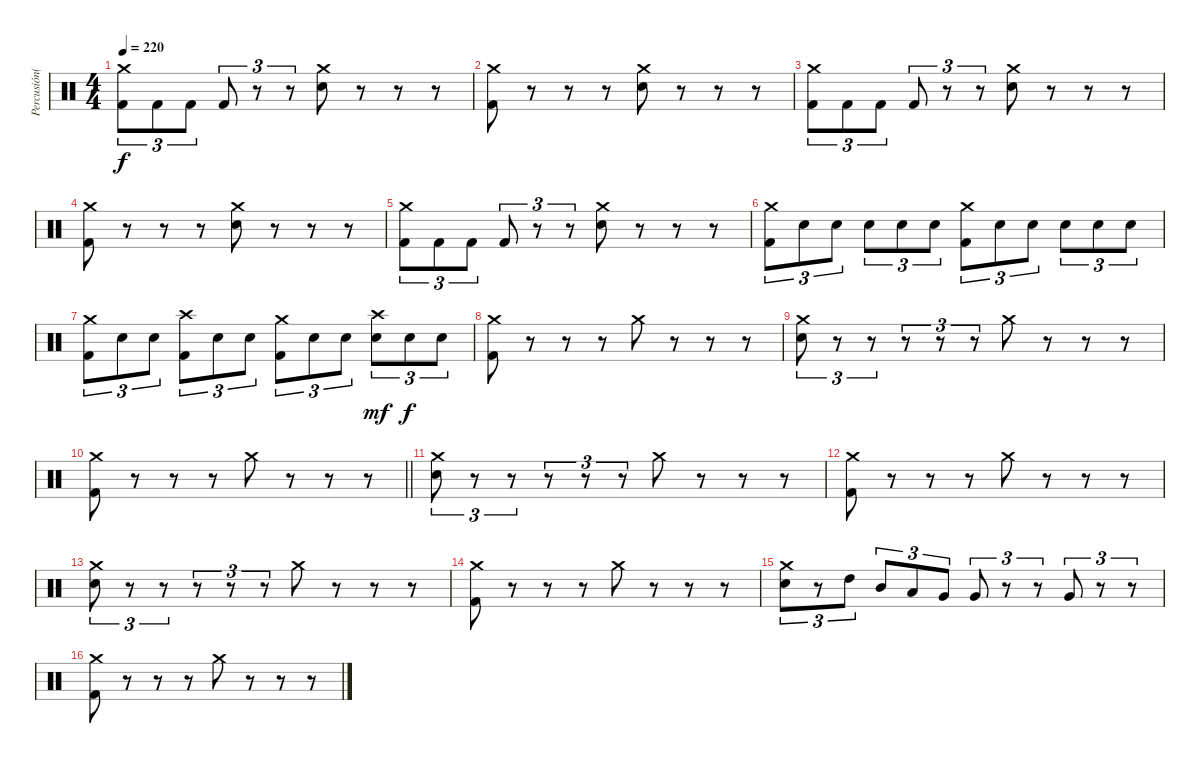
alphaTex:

\track ("Percusión(Brett Powell)" "Percusión(") {instrument percussion}
\staff {score}
\articulation defaults
\ts (4 4)
\tempo 220
\clef neutral
\ks c
("Crash medium (hit)" "Kick (hit) 2").8{tu (3 2) dy f} "Kick (hit) 2".8{tu (3 2)} "Kick (hit) 2".8{tu (3 2)} "Kick (hit) 2".8{tu (3 2)} r.8{tu (3 2)} r.8{tu (3 2)} ("Crash medium (hit)" "Electric Snare (hit)").8 r.8 r.8 r.8 |
("Crash medium (hit)" "Kick (hit) 2").8 r.8 r.8 r.8 ("Crash medium (hit)" "Electric Snare (hit)").8 r.8 r.8 r.8 |
("Crash medium (hit)" "Kick (hit) 2").8{tu (3 2)} "Kick (hit) 2".8{tu (3 2)} "Kick (hit) 2".8{tu (3 2)} "Kick (hit) 2".8{tu (3 2)} r.8{tu (3 2)} r.8{tu (3 2)} ("Crash medium (hit)" "Electric Snare (hit)").8 r.8 r.8 r.8 |
("Crash medium (hit)" "Kick (hit) 2").8 r.8 r.8 r.8 ("Crash medium (hit)" "Electric Snare (hit)").8 r.8 r.8 r.8 |
("Crash medium (hit)" "Kick (hit) 2").8{tu (3 2)} "Kick (hit) 2".8{tu (3 2)} "Kick (hit) 2".8{tu (3 2)} "Kick (hit) 2".8{tu (3 2)} r.8{tu (3 2)} r.8{tu (3 2)} ("Crash medium (hit)" "Electric Snare (hit)").8 r.8 r.8 r.8 |
("Crash medium (hit)" "Kick (hit) 2").8{tu (3 2)} "Electric Snare (hit)".8{tu (3 2)} "Electric Snare (hit)".8{tu (3 2)} "Electric Snare (hit)".8{tu (3 2)} "Electric Snare (hit)".8{tu (3 2)} "Electric Snare (hit)".8{tu (3 2)} ("Crash medium (hit)" "Kick (hit) 2").8{tu (3 2)} "Electric Snare (hit)".8{tu (3 2)} "Electric Snare (hit)".8{tu (3 2)} "Electric Snare (hit)".8{tu (3 2)} "Electric Snare (hit)".8{tu (3 2)} "Electric Snare (hit)".8{tu (3 2)} |
("Crash medium (hit)" "Kick (hit) 2").8{tu (3 2)} "Electric Snare (hit)".8{tu (3 2)} "Electric Snare (hit)".8{tu (3 2)} ("Crash high (hit)" "Kick (hit) 2").8{tu (3 2)} "Electric Snare (hit)".8{tu (3 2)} "Electric Snare (hit)".8{tu (3 2)} ("Crash medium (hit)" "Kick (hit) 2").8{tu (3 2)} "Electric Snare (hit)".8{tu (3 2)} "Electric Snare (hit)".8{tu (3 2)} ("Crash high (hit)" "Electric Snare (hit)").8{tu (3 2) dy mf} "Electric Snare (hit)".8{tu (3 2) dy f} "Electric Snare (hit)".8{tu (3 2)} |
("Crash medium (hit)" "Kick (hit) 2").8 r.8 r.8 r.8 "Crash medium (hit)".8 r.8 r.8 r.8 |
("Crash medium (hit)" "Electric Snare (hit)").8{tu (3 2)} r.8{tu (3 2)} r.8{tu (3 2)} r.8{tu (3 2)} r.8{tu (3 2)} r.8{tu (3 2)} "Crash medium (hit)".8 r.8 r.8 r.8 |
\barLineRight lightlight
("Crash medium (hit)" "Kick (hit) 2").8 r.8 r.8 r.8 "Crash medium (hit)".8 r.8 r.8 r.8 |
\section ("" "")
("Crash medium (hit)" "Electric Snare (hit)").8{tu (3 2)} r.8{tu (3 2)} r.8{tu (3 2)} r.8{tu (3 2)} r.8{tu (3 2)} r.8{tu (3 2)} "Crash medium (hit)".8 r.8 r.8 r.8 |
("Crash medium (hit)" "Kick (hit) 2").8 r.8 r.8 r.8 "Crash medium (hit)".8 r.8 r.8 r.8 |
("Crash medium (hit)" "Electric Snare (hit)").8{tu (3 2)} r.8{tu (3 2)} r.8{tu (3 2)} r.8{tu (3 2)} r.8{tu (3 2)} r.8{tu (3 2)} "Crash medium (hit)".8 r.8 r.8 r.8 |
("Crash medium (hit)" "Kick (hit) 2").8 r.8 r.8 r.8 "Crash medium (hit)".8 r.8 r.8 r.8 |
("Crash medium (hit)" "Electric Snare (hit)").8{tu (3 2)} r.8{tu (3 2)} "High Tom (hit)".8{tu (3 2)} "Mid Tom (hit)".8{tu (3 2)} "Low Tom (hit)".8{tu (3 2)} "Very Low Tom (hit)".8{tu (3 2)} "Very Low Tom (hit)".8{tu (3 2)} r.8{tu (3 2)} r.8{tu (3 2)} "Very Low Tom (hit)".8{tu (3 2)} r.8{tu (3 2)} r.8{tu (3 2)} |
("Crash medium (hit)" "Kick (hit) 2").8 r.8 r.8 r.8 "Crash medium (hit)".8 r.8 r.8 r.8
